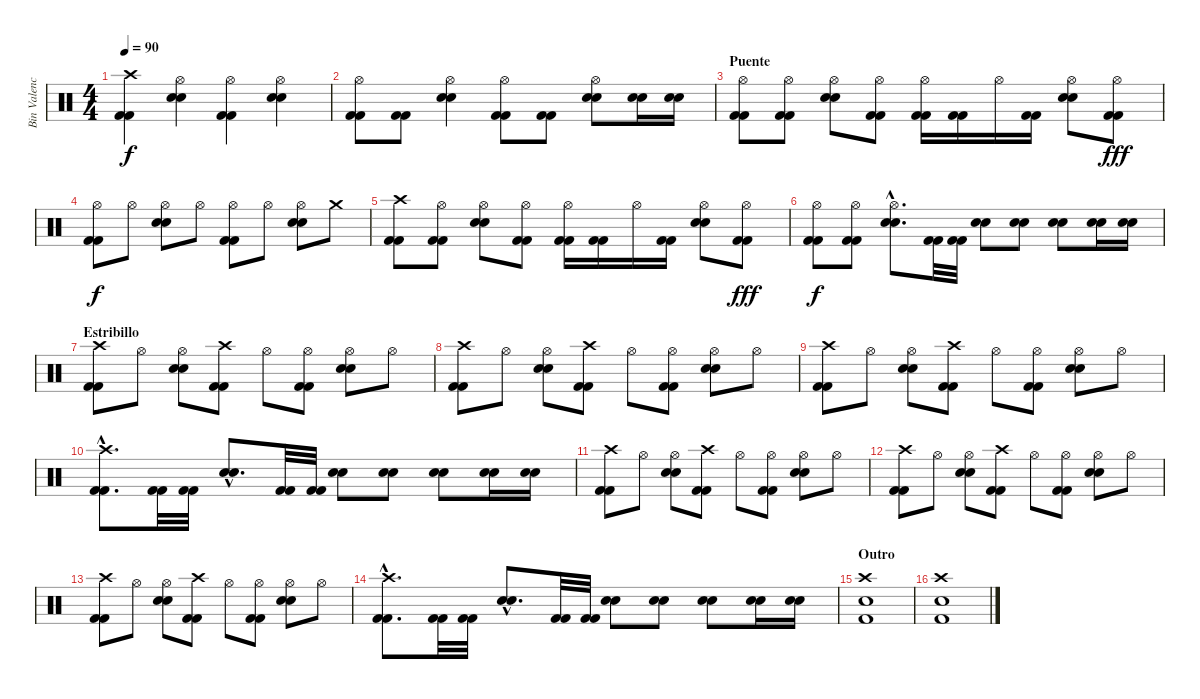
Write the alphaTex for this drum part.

\track ("Bin Valencia" "Bin Valenc") {instrument percussion}
\staff {score}
\articulation defaults
\ts (4 4)
\tempo 90
\clef neutral
\ks c
("Crash high (hit)" "Kick (hit) 2" "Kick (hit) 2").4{dy f} ("Hi-Hat (open)" "Snare (hit) 2" "Snare (hit) 2").4 ("Hi-Hat (open)" "Kick (hit) 2" "Kick (hit) 2").4 ("Hi-Hat (open)" "Snare (hit) 2" "Snare (hit) 2").4 |
("Hi-Hat (open)" "Kick (hit) 2" "Kick (hit) 2").8 ("Kick (hit) 2" "Kick (hit) 2").8 ("Hi-Hat (open)" "Snare (hit) 2" "Snare (hit) 2").4 ("Hi-Hat (open)" "Kick (hit) 2" "Kick (hit) 2").8 ("Kick (hit) 2" "Kick (hit) 2").8 ("Hi-Hat (open)" "Snare (hit) 2" "Snare (hit) 2").8 ("Snare (hit) 2" "Snare (hit) 2").16 ("Snare (hit) 2" "Snare (hit) 2").16 |
\section ("" "Puente")
("Hi-Hat (open)" "Kick (hit) 2" "Kick (hit) 2").8 ("Hi-Hat (open)" "Kick (hit) 2" "Kick (hit) 2").8 ("Hi-Hat (open)" "Snare (hit) 2" "Snare (hit) 2").8 ("Hi-Hat (open)" "Kick (hit) 2" "Kick (hit) 2").8 ("Hi-Hat (open)" "Kick (hit) 2" "Kick (hit) 2").16 ("Kick (hit) 2" "Kick (hit) 2").16 "Hi-Hat (open)".16 ("Kick (hit) 2" "Kick (hit) 2").16 ("Hi-Hat (open)" "Snare (hit) 2" "Snare (hit) 2").8 ("Hi-Hat (open)" "Kick (hit) 2" "Kick (hit) 2").8{dy fff} |
("Hi-Hat (open)" "Kick (hit) 2" "Kick (hit) 2").8{dy f} "Hi-Hat (open)".8 ("Hi-Hat (open)" "Snare (hit) 2" "Snare (hit) 2").8 "Hi-Hat (open)".8 ("Hi-Hat (open)" "Kick (hit) 2" "Kick (hit) 2").8 "Hi-Hat (open)".8 ("Hi-Hat (open)" "Snare (hit) 2" "Snare (hit) 2").8 "Crash medium (hit)".8 |
("Crash high (hit)" "Kick (hit) 2" "Kick (hit) 2").8 ("Hi-Hat (open)" "Kick (hit) 2" "Kick (hit) 2").8 ("Hi-Hat (open)" "Snare (hit) 2" "Snare (hit) 2").8 ("Hi-Hat (open)" "Kick (hit) 2" "Kick (hit) 2").8 ("Hi-Hat (open)" "Kick (hit) 2" "Kick (hit) 2").16 ("Kick (hit) 2" "Kick (hit) 2").16 "Hi-Hat (open)".16 ("Kick (hit) 2" "Kick (hit) 2").16 ("Hi-Hat (open)" "Snare (hit) 2" "Snare (hit) 2").8 ("Hi-Hat (open)" "Kick (hit) 2" "Kick (hit) 2").8{dy fff} |
("Hi-Hat (open)" "Kick (hit) 2" "Kick (hit) 2").8{dy f} ("Hi-Hat (open)" "Kick (hit) 2" "Kick (hit) 2").8 ("Hi-Hat (open)"{hac} "Snare (hit) 2"{hac} "Snare (hit) 2"{hac}).8{d} ("Kick (hit) 2" "Kick (hit) 2").32 ("Kick (hit) 2" "Kick (hit) 2").32 ("Snare (hit) 2" "Snare (hit) 2").8 ("Snare (hit) 2" "Snare (hit) 2").8 ("Snare (hit) 2" "Snare (hit) 2").8 ("Snare (hit) 2" "Snare (hit) 2").16 ("Snare (hit) 2" "Snare (hit) 2").16 |
\section ("" "Estribillo")
("Crash high (hit)" "Kick (hit) 2" "Kick (hit) 2").8 "Hi-Hat (open)".8 ("Hi-Hat (open)" "Snare (hit) 2" "Snare (hit) 2").8 ("Crash high (hit)" "Kick (hit) 2" "Kick (hit) 2").8 "Hi-Hat (open)".8 ("Hi-Hat (open)" "Kick (hit) 2" "Kick (hit) 2").8 ("Hi-Hat (open)" "Snare (hit) 2" "Snare (hit) 2").8 "Hi-Hat (open)".8 |
("Crash high (hit)" "Kick (hit) 2" "Kick (hit) 2").8 "Hi-Hat (open)".8 ("Hi-Hat (open)" "Snare (hit) 2" "Snare (hit) 2").8 ("Crash high (hit)" "Kick (hit) 2" "Kick (hit) 2").8 "Hi-Hat (open)".8 ("Hi-Hat (open)" "Kick (hit) 2" "Kick (hit) 2").8 ("Hi-Hat (open)" "Snare (hit) 2" "Snare (hit) 2").8 "Hi-Hat (open)".8 |
("Crash high (hit)" "Kick (hit) 2" "Kick (hit) 2").8 "Hi-Hat (open)".8 ("Hi-Hat (open)" "Snare (hit) 2" "Snare (hit) 2").8 ("Crash high (hit)" "Kick (hit) 2" "Kick (hit) 2").8 "Hi-Hat (open)".8 ("Hi-Hat (open)" "Kick (hit) 2" "Kick (hit) 2").8 ("Hi-Hat (open)" "Snare (hit) 2" "Snare (hit) 2").8 "Hi-Hat (open)".8 |
("Crash high (hit)"{hac} "Kick (hit) 2"{hac} "Kick (hit) 2"{hac}).8{d} ("Kick (hit) 2" "Kick (hit) 2").32 ("Kick (hit) 2" "Kick (hit) 2").32 ("Snare (hit) 2"{hac} "Snare (hit) 2"{hac}).8{d} ("Kick (hit) 2" "Kick (hit) 2").32 ("Kick (hit) 2" "Kick (hit) 2").32 ("Snare (hit) 2" "Snare (hit) 2").8 ("Snare (hit) 2" "Snare (hit) 2").8 ("Snare (hit) 2" "Snare (hit) 2").8 ("Snare (hit) 2" "Snare (hit) 2").16 ("Snare (hit) 2" "Snare (hit) 2").16 |
("Crash high (hit)" "Kick (hit) 2" "Kick (hit) 2").8 "Hi-Hat (open)".8 ("Hi-Hat (open)" "Snare (hit) 2" "Snare (hit) 2").8 ("Crash high (hit)" "Kick (hit) 2" "Kick (hit) 2").8 "Hi-Hat (open)".8 ("Hi-Hat (open)" "Kick (hit) 2" "Kick (hit) 2").8 ("Hi-Hat (open)" "Snare (hit) 2" "Snare (hit) 2").8 "Hi-Hat (open)".8 |
("Crash high (hit)" "Kick (hit) 2" "Kick (hit) 2").8 "Hi-Hat (open)".8 ("Hi-Hat (open)" "Snare (hit) 2" "Snare (hit) 2").8 ("Crash high (hit)" "Kick (hit) 2" "Kick (hit) 2").8 "Hi-Hat (open)".8 ("Hi-Hat (open)" "Kick (hit) 2" "Kick (hit) 2").8 ("Hi-Hat (open)" "Snare (hit) 2" "Snare (hit) 2").8 "Hi-Hat (open)".8 |
("Crash high (hit)" "Kick (hit) 2" "Kick (hit) 2").8 "Hi-Hat (open)".8 ("Hi-Hat (open)" "Snare (hit) 2" "Snare (hit) 2").8 ("Crash high (hit)" "Kick (hit) 2" "Kick (hit) 2").8 "Hi-Hat (open)".8 ("Hi-Hat (open)" "Kick (hit) 2" "Kick (hit) 2").8 ("Hi-Hat (open)" "Snare (hit) 2" "Snare (hit) 2").8 "Hi-Hat (open)".8 |
("Crash high (hit)"{hac} "Kick (hit) 2"{hac} "Kick (hit) 2"{hac}).8{d} ("Kick (hit) 2" "Kick (hit) 2").32 ("Kick (hit) 2" "Kick (hit) 2").32 ("Snare (hit) 2"{hac} "Snare (hit) 2"{hac}).8{d} ("Kick (hit) 2" "Kick (hit) 2").32 ("Kick (hit) 2" "Kick (hit) 2").32 ("Snare (hit) 2" "Snare (hit) 2").8 ("Snare (hit) 2" "Snare (hit) 2").8 ("Snare (hit) 2" "Snare (hit) 2").8 ("Snare (hit) 2" "Snare (hit) 2").16 ("Snare (hit) 2" "Snare (hit) 2").16 |
\section ("" "Outro")
("Crash high (hit)" "Snare (hit) 2" "Kick (hit) 2").1 |
("Crash high (hit)" "Snare (hit) 2" "Kick (hit) 2").1
